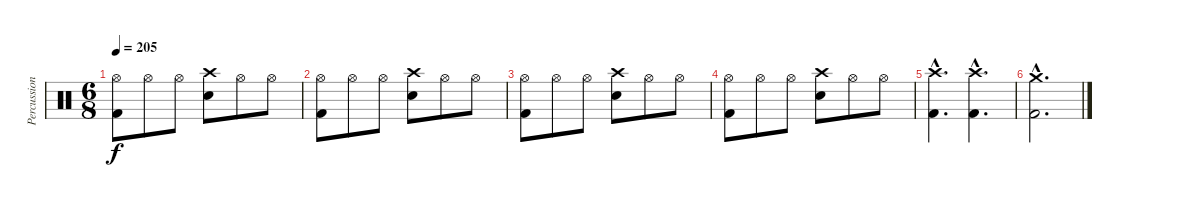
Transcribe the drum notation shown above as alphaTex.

\track ("Percussion" "Percussion") {instrument percussion}
\staff {score}
\articulation defaults
\ts (6 8)
\tempo 205
\clef neutral
\ks c
("Hi-Hat (open)" "Kick (hit) 2").8{dy f} "Hi-Hat (open)".8 "Hi-Hat (open)".8 ("Crash high (hit)" "Electric Snare (hit)").8 "Hi-Hat (open)".8 "Hi-Hat (open)".8 |
("Hi-Hat (open)" "Kick (hit) 2").8 "Hi-Hat (open)".8 "Hi-Hat (open)".8 ("Crash high (hit)" "Electric Snare (hit)").8 "Hi-Hat (open)".8 "Hi-Hat (open)".8 |
("Hi-Hat (open)" "Kick (hit) 2").8 "Hi-Hat (open)".8 "Hi-Hat (open)".8 ("Crash high (hit)" "Electric Snare (hit)").8 "Hi-Hat (open)".8 "Hi-Hat (open)".8 |
("Hi-Hat (open)" "Kick (hit) 2").8 "Hi-Hat (open)".8 "Hi-Hat (open)".8 ("Crash high (hit)" "Electric Snare (hit)").8 "Hi-Hat (open)".8 "Hi-Hat (open)".8 |
("Crash high (hit)"{hac} "Kick (hit) 2"{hac}).4{d} ("Crash high (hit)"{hac} "Kick (hit) 2"{hac}).4{d} |
("Crash medium (hit)"{hac} "Kick (hit) 2"{hac}).2{d}
